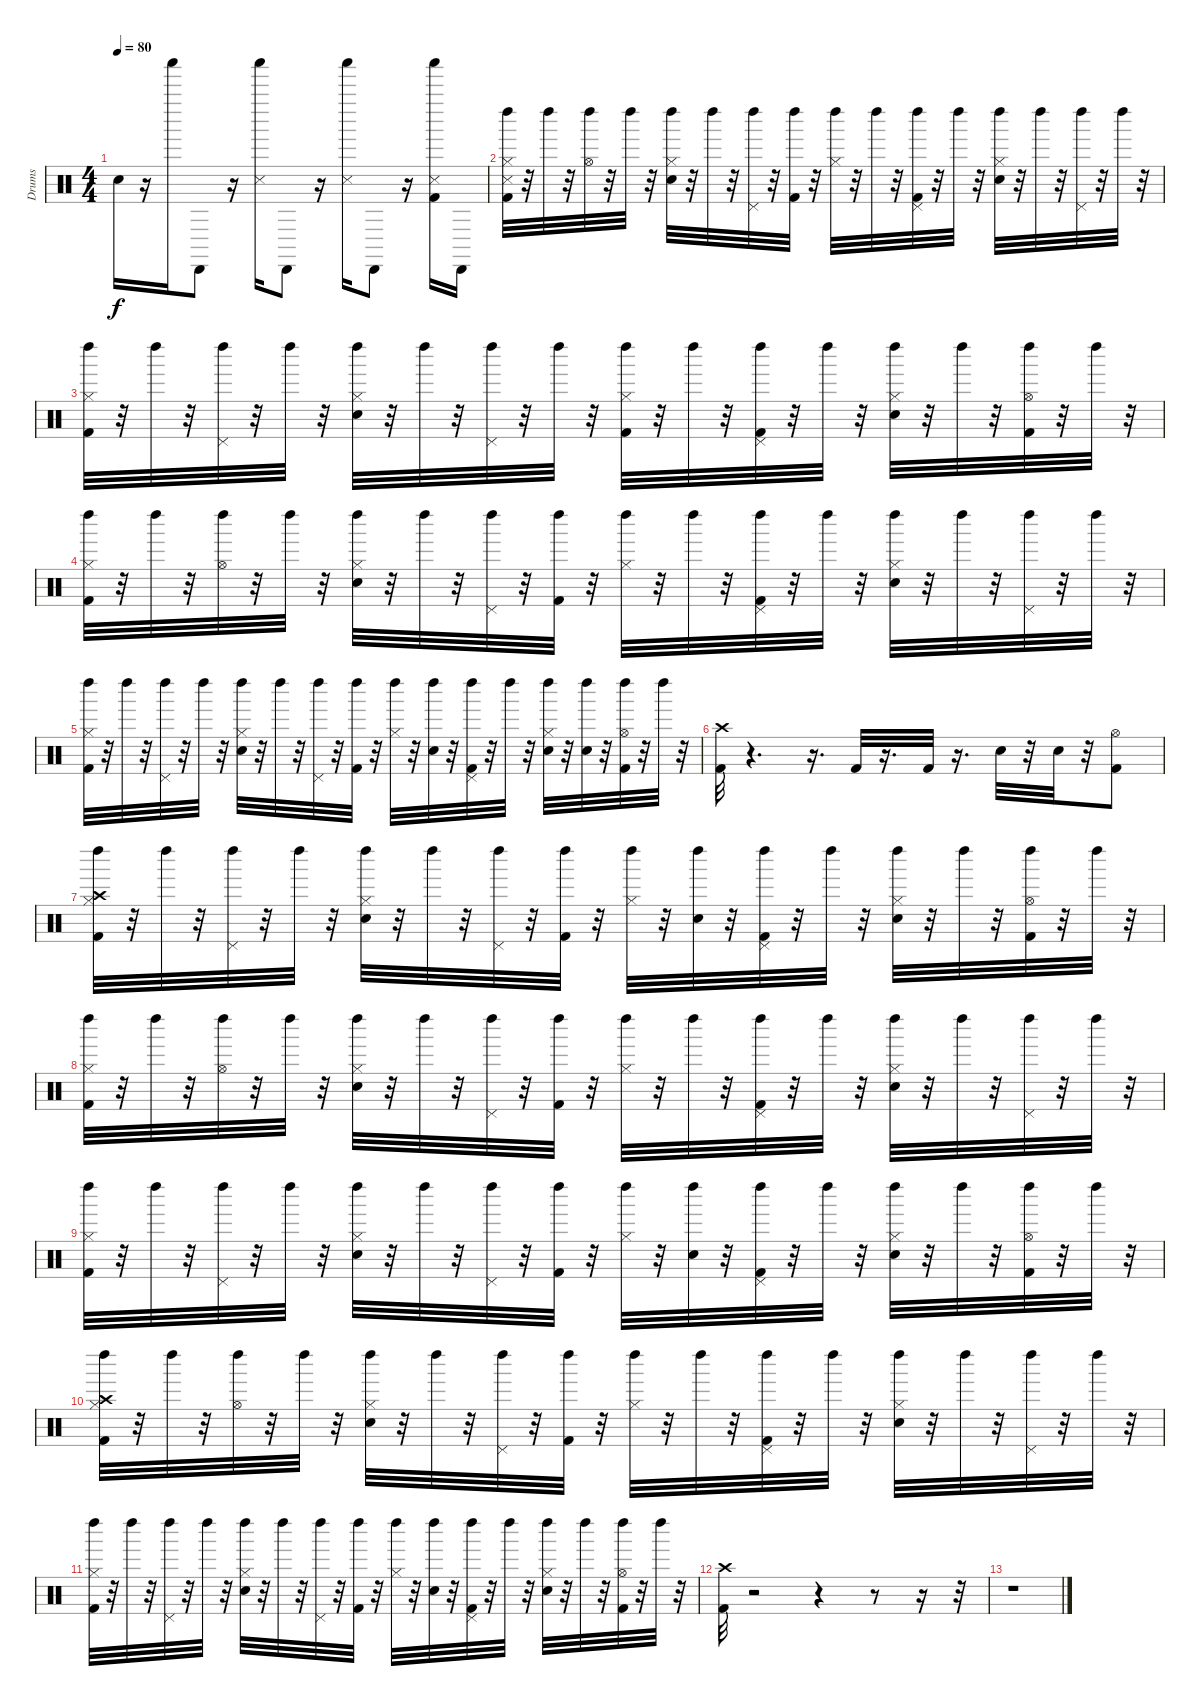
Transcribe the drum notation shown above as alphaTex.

\track ("Drums" "Drums") {instrument percussion}
\staff {score}
\articulation defaults
\ts (4 4)
\tempo 80
\clef neutral
\ks c "Snare (hit)"{t}.16{dy f}
r.16 "Shaker (hit)".16 "Cabasa (hit)".8 r.16 ("Snare (side stick) 3" "Shaker (hit)").16 "Cabasa (hit)".8 r.16 ("Snare (side stick) 3" "Shaker (hit)").16 "Cabasa (hit)".8 r.16 ("Kick (hit) 2" "Snare (side stick) 3" "Shaker (hit)").16 "Cabasa (hit)".16 |
("Kick (hit) 2" "Snare (side stick) 3" "Left Maraca (hit)" "Hi-Hat (closed)").32 r.32 "Left Maraca (hit)".32 r.32 ("Left Maraca (hit)" "Hi-Hat (open)").32 r.32 "Left Maraca (hit)".32 r.32 ("Left Maraca (hit)" "Snare (hit) 2" "Hi-Hat (closed)").32 r.32 "Left Maraca (hit)".32 r.32 ("Left Maraca (hit)" "Pedal Hi-Hat (hit)").32 r.32 ("Left Maraca (hit)" "Kick (hit) 2").32 r.32 ("Left Maraca (hit)" "Hi-Hat (closed)").32 r.32 "Left Maraca (hit)".32 r.32 ("Left Maraca (hit)" "Kick (hit) 2" "Pedal Hi-Hat (hit)").32 r.32 "Left Maraca (hit)".32 r.32 ("Left Maraca (hit)" "Snare (hit) 2" "Hi-Hat (closed)").32 r.32 "Left Maraca (hit)".32 r.32 ("Left Maraca (hit)" "Pedal Hi-Hat (hit)").32 r.32 "Left Maraca (hit)".32 r.32 |
("Kick (hit) 2" "Hi-Hat (closed)" "Left Maraca (hit)").32 r.32 "Left Maraca (hit)".32 r.32 ("Pedal Hi-Hat (hit)" "Left Maraca (hit)").32 r.32 "Left Maraca (hit)".32 r.32 ("Snare (hit) 2" "Hi-Hat (closed)" "Left Maraca (hit)").32 r.32 "Left Maraca (hit)".32 r.32 ("Pedal Hi-Hat (hit)" "Left Maraca (hit)").32 r.32 "Left Maraca (hit)".32 r.32 ("Kick (hit) 2" "Hi-Hat (closed)" "Left Maraca (hit)").32 r.32 "Left Maraca (hit)".32 r.32 ("Kick (hit) 2" "Pedal Hi-Hat (hit)" "Left Maraca (hit)").32 r.32 "Left Maraca (hit)".32 r.32 ("Snare (hit) 2" "Hi-Hat (closed)" "Left Maraca (hit)").32 r.32 "Left Maraca (hit)".32 r.32 ("Left Maraca (hit)" "Hi-Hat (open)" "Kick (hit) 2").32 r.32 "Left Maraca (hit)".32 r.32 |
("Left Maraca (hit)" "Kick (hit) 2" "Hi-Hat (closed)").32 r.32 "Left Maraca (hit)".32 r.32 ("Left Maraca (hit)" "Hi-Hat (open)").32 r.32 "Left Maraca (hit)".32 r.32 ("Left Maraca (hit)" "Snare (hit) 2" "Hi-Hat (closed)").32 r.32 "Left Maraca (hit)".32 r.32 ("Left Maraca (hit)" "Pedal Hi-Hat (hit)").32 r.32 ("Left Maraca (hit)" "Kick (hit) 2").32 r.32 ("Left Maraca (hit)" "Hi-Hat (closed)").32 r.32 "Left Maraca (hit)".32 r.32 ("Left Maraca (hit)" "Kick (hit) 2" "Pedal Hi-Hat (hit)").32 r.32 "Left Maraca (hit)".32 r.32 ("Left Maraca (hit)" "Snare (hit) 2" "Hi-Hat (closed)").32 r.32 "Left Maraca (hit)".32 r.32 ("Left Maraca (hit)" "Pedal Hi-Hat (hit)").32 r.32 "Left Maraca (hit)".32 r.32 |
("Kick (hit) 2" "Hi-Hat (closed)" "Left Maraca (hit)").32 r.32 "Left Maraca (hit)".32 r.32 ("Pedal Hi-Hat (hit)" "Left Maraca (hit)").32 r.32 "Left Maraca (hit)".32 r.32 ("Snare (hit) 2" "Hi-Hat (closed)" "Left Maraca (hit)").32 r.32 "Left Maraca (hit)".32 r.32 ("Pedal Hi-Hat (hit)" "Left Maraca (hit)").32 r.32 ("Left Maraca (hit)" "Kick (hit) 2").32 r.32 ("Hi-Hat (closed)" "Left Maraca (hit)").32 r.32 ("Left Maraca (hit)" "Snare (hit) 2").32 r.32 ("Kick (hit) 2" "Pedal Hi-Hat (hit)" "Left Maraca (hit)").32 r.32 "Left Maraca (hit)".32 r.32 ("Snare (hit) 2" "Hi-Hat (closed)" "Left Maraca (hit)").32 r.32 ("Snare (hit) 2" "Left Maraca (hit)").32 r.32 ("Left Maraca (hit)" "Hi-Hat (open)" "Kick (hit) 2").32 r.32 "Left Maraca (hit)".32 r.32 |
("Crash high (hit)" "Kick (hit) 2").32 r.4{d} r.16{d} "Kick (hit) 2".32 r.16{d} "Kick (hit) 2".32 r.16{d} "Snare (hit) 2".32 r.32 "Snare (hit) 2".32 r.32 ("Hi-Hat (open)" "Kick (hit) 2").8 |
("Crash high (hit)" "Left Maraca (hit)" "Kick (hit) 2" "Hi-Hat (closed)").32 r.32 "Left Maraca (hit)".32 r.32 ("Left Maraca (hit)" "Pedal Hi-Hat (hit)").32 r.32 "Left Maraca (hit)".32 r.32 ("Left Maraca (hit)" "Snare (hit) 2" "Hi-Hat (closed)").32 r.32 "Left Maraca (hit)".32 r.32 ("Left Maraca (hit)" "Pedal Hi-Hat (hit)").32 r.32 ("Left Maraca (hit)" "Kick (hit) 2").32 r.32 ("Left Maraca (hit)" "Hi-Hat (closed)").32 r.32 ("Left Maraca (hit)" "Snare (hit) 2").32 r.32 ("Left Maraca (hit)" "Kick (hit) 2" "Pedal Hi-Hat (hit)").32 r.32 "Left Maraca (hit)".32 r.32 ("Left Maraca (hit)" "Snare (hit) 2" "Hi-Hat (closed)").32 r.32 "Left Maraca (hit)".32 r.32 ("Left Maraca (hit)" "Hi-Hat (open)" "Kick (hit) 2").32 r.32 "Left Maraca (hit)".32 r.32 |
("Left Maraca (hit)" "Kick (hit) 2" "Hi-Hat (closed)").32 r.32 "Left Maraca (hit)".32 r.32 ("Left Maraca (hit)" "Hi-Hat (open)").32 r.32 "Left Maraca (hit)".32 r.32 ("Left Maraca (hit)" "Snare (hit) 2" "Hi-Hat (closed)").32 r.32 "Left Maraca (hit)".32 r.32 ("Left Maraca (hit)" "Pedal Hi-Hat (hit)").32 r.32 ("Left Maraca (hit)" "Kick (hit) 2").32 r.32 ("Left Maraca (hit)" "Hi-Hat (closed)").32 r.32 "Left Maraca (hit)".32 r.32 ("Left Maraca (hit)" "Kick (hit) 2" "Pedal Hi-Hat (hit)").32 r.32 "Left Maraca (hit)".32 r.32 ("Left Maraca (hit)" "Snare (hit) 2" "Hi-Hat (closed)").32 r.32 "Left Maraca (hit)".32 r.32 ("Left Maraca (hit)" "Pedal Hi-Hat (hit)").32 r.32 "Left Maraca (hit)".32 r.32 |
("Left Maraca (hit)" "Kick (hit) 2" "Hi-Hat (closed)").32 r.32 "Left Maraca (hit)".32 r.32 ("Left Maraca (hit)" "Pedal Hi-Hat (hit)").32 r.32 "Left Maraca (hit)".32 r.32 ("Left Maraca (hit)" "Snare (hit) 2" "Hi-Hat (closed)").32 r.32 "Left Maraca (hit)".32 r.32 ("Left Maraca (hit)" "Pedal Hi-Hat (hit)").32 r.32 ("Left Maraca (hit)" "Kick (hit) 2").32 r.32 ("Left Maraca (hit)" "Hi-Hat (closed)").32 r.32 ("Left Maraca (hit)" "Snare (hit) 2").32 r.32 ("Left Maraca (hit)" "Kick (hit) 2" "Pedal Hi-Hat (hit)").32 r.32 "Left Maraca (hit)".32 r.32 ("Left Maraca (hit)" "Snare (hit) 2" "Hi-Hat (closed)").32 r.32 "Left Maraca (hit)".32 r.32 ("Left Maraca (hit)" "Hi-Hat (open)" "Kick (hit) 2").32 r.32 "Left Maraca (hit)".32 r.32 |
("Crash high (hit)" "Left Maraca (hit)" "Kick (hit) 2" "Hi-Hat (closed)").32 r.32 "Left Maraca (hit)".32 r.32 ("Left Maraca (hit)" "Hi-Hat (open)").32 r.32 "Left Maraca (hit)".32 r.32 ("Left Maraca (hit)" "Snare (hit) 2" "Hi-Hat (closed)").32 r.32 "Left Maraca (hit)".32 r.32 ("Left Maraca (hit)" "Pedal Hi-Hat (hit)").32 r.32 ("Left Maraca (hit)" "Kick (hit) 2").32 r.32 ("Left Maraca (hit)" "Hi-Hat (closed)").32 r.32 "Left Maraca (hit)".32 r.32 ("Left Maraca (hit)" "Kick (hit) 2" "Pedal Hi-Hat (hit)").32 r.32 "Left Maraca (hit)".32 r.32 ("Left Maraca (hit)" "Snare (hit) 2" "Hi-Hat (closed)").32 r.32 "Left Maraca (hit)".32 r.32 ("Left Maraca (hit)" "Pedal Hi-Hat (hit)").32 r.32 "Left Maraca (hit)".32 r.32 |
("Left Maraca (hit)" "Kick (hit) 2" "Hi-Hat (closed)").32 r.32 "Left Maraca (hit)".32 r.32 ("Left Maraca (hit)" "Pedal Hi-Hat (hit)").32 r.32 "Left Maraca (hit)".32 r.32 ("Left Maraca (hit)" "Snare (hit) 2" "Hi-Hat (closed)").32 r.32 "Left Maraca (hit)".32 r.32 ("Left Maraca (hit)" "Pedal Hi-Hat (hit)").32 r.32 ("Left Maraca (hit)" "Kick (hit) 2").32 r.32 ("Left Maraca (hit)" "Hi-Hat (closed)").32 r.32 ("Left Maraca (hit)" "Snare (hit) 2").32 r.32 ("Left Maraca (hit)" "Kick (hit) 2" "Pedal Hi-Hat (hit)").32 r.32 "Left Maraca (hit)".32 r.32 ("Left Maraca (hit)" "Snare (hit) 2" "Hi-Hat (closed)").32 r.32 "Left Maraca (hit)".32 r.32 ("Left Maraca (hit)" "Hi-Hat (open)" "Kick (hit) 2").32 r.32 "Left Maraca (hit)".32 r.32 |
("Crash high (hit)" "Kick (hit) 2").32 r.2 r.4 r.8 r.16 r.32 |
r.1
